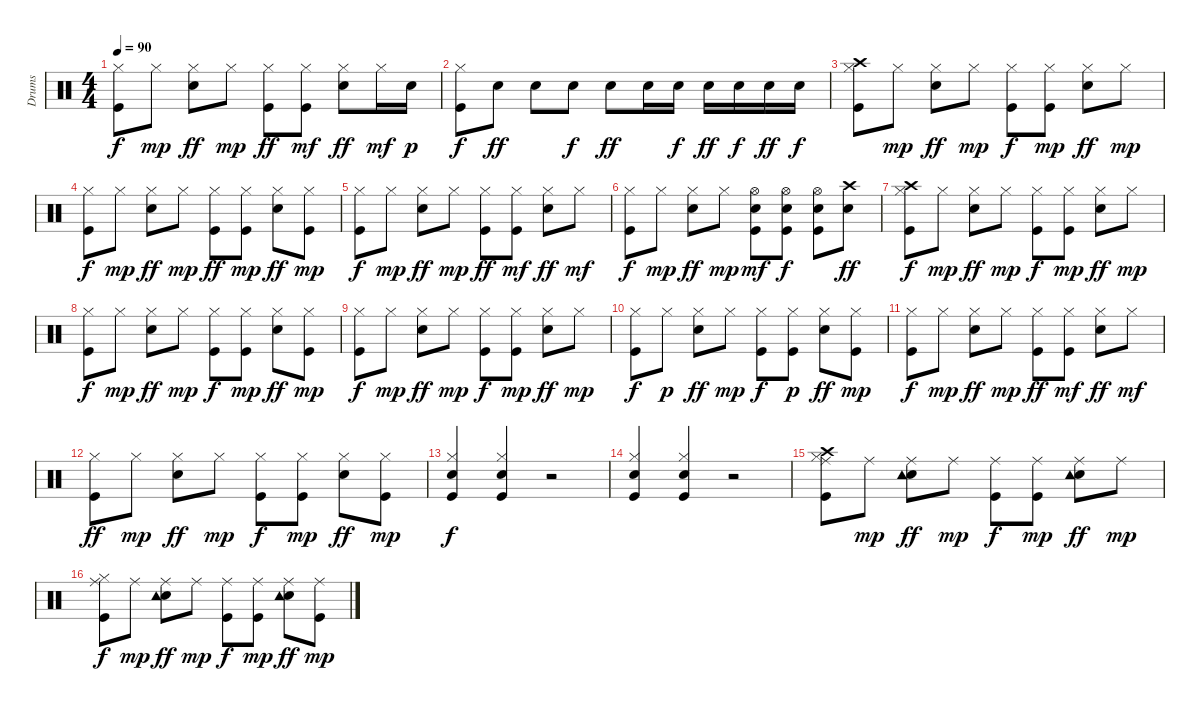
\track ("Drums   " "Drums   ") {instrument percussion}
\staff {score}
\articulation defaults
\ts (4 4)
\tempo 90
\clef neutral
\ks c
("Kick (hit)" "Hi-Hat (closed)").8{dy f} "Hi-Hat (closed)".8{dy mp} ("Snare (hit) 2" "Hi-Hat (closed)").8{dy ff} "Hi-Hat (closed)".8{dy mp} ("Kick (hit)" "Hi-Hat (closed)").8{dy ff} ("Kick (hit)" "Hi-Hat (closed)").8{dy mf} ("Snare (hit) 2" "Hi-Hat (closed)").8{dy ff} "Hi-Hat (closed)".16{dy mf} "Snare (hit) 2".16{dy p} |
("Kick (hit)" "Hi-Hat (closed)").8{dy f} "Snare (hit) 2".8{dy ff} "Snare (hit) 2".8 "Snare (hit) 2".8{dy f} "Snare (hit) 2".8{dy ff} "Snare (hit) 2".16 "Snare (hit) 2".16{dy f} "Snare (hit) 2".16{dy ff} "Snare (hit) 2".16{dy f} "Snare (hit) 2".16{dy ff} "Snare (hit) 2".16{dy f} |
("Kick (hit)" "Hi-Hat (closed)" "Crash high (hit)").8 "Hi-Hat (closed)".8{dy mp} ("Snare (hit) 2" "Hi-Hat (closed)").8{dy ff} "Hi-Hat (closed)".8{dy mp} ("Kick (hit)" "Hi-Hat (closed)").8{dy f} ("Kick (hit)" "Hi-Hat (closed)").8{dy mp} ("Snare (hit) 2" "Hi-Hat (closed)").8{dy ff} "Hi-Hat (closed)".8{dy mp} |
("Kick (hit)" "Hi-Hat (closed)").8{dy f} "Hi-Hat (closed)".8{dy mp} ("Snare (hit) 2" "Hi-Hat (closed)").8{dy ff} "Hi-Hat (closed)".8{dy mp} ("Kick (hit)" "Hi-Hat (closed)").8{dy ff} ("Kick (hit)" "Hi-Hat (closed)").8{dy mp} ("Snare (hit) 2" "Hi-Hat (closed)").8{dy ff} ("Kick (hit)" "Hi-Hat (closed)").8{dy mp} |
("Kick (hit)" "Hi-Hat (closed)").8{dy f} "Hi-Hat (closed)".8{dy mp} ("Snare (hit) 2" "Hi-Hat (closed)").8{dy ff} "Hi-Hat (closed)".8{dy mp} ("Kick (hit)" "Hi-Hat (closed)").8{dy ff} ("Kick (hit)" "Hi-Hat (closed)").8{dy mf} ("Snare (hit) 2" "Hi-Hat (closed)").8{dy ff} "Hi-Hat (closed)".8{dy mf} |
("Kick (hit)" "Hi-Hat (closed)").8{dy f} "Hi-Hat (closed)".8{dy mp} ("Snare (hit) 2" "Hi-Hat (closed)").8{dy ff} "Hi-Hat (closed)".8{dy mp} ("Kick (hit)" "Snare (hit) 2" "Hi-Hat (open)").8{dy mf} ("Kick (hit)" "Snare (hit) 2" "Hi-Hat (open)").8{dy f} ("Kick (hit)" "Snare (hit) 2" "Hi-Hat (open)").8 ("Snare (hit) 2" "Crash high (hit)").8{dy ff} |
("Kick (hit)" "Hi-Hat (closed)" "Crash high (hit)").8{dy f} "Hi-Hat (closed)".8{dy mp} ("Snare (hit) 2" "Hi-Hat (closed)").8{dy ff} "Hi-Hat (closed)".8{dy mp} ("Kick (hit)" "Hi-Hat (closed)").8{dy f} ("Kick (hit)" "Hi-Hat (closed)").8{dy mp} ("Snare (hit) 2" "Hi-Hat (closed)").8{dy ff} "Hi-Hat (closed)".8{dy mp} |
("Kick (hit)" "Hi-Hat (closed)").8{dy f} "Hi-Hat (closed)".8{dy mp} ("Snare (hit) 2" "Hi-Hat (closed)").8{dy ff} "Hi-Hat (closed)".8{dy mp} ("Kick (hit)" "Hi-Hat (closed)").8{dy f} ("Kick (hit)" "Hi-Hat (closed)").8{dy mp} ("Snare (hit) 2" "Hi-Hat (closed)").8{dy ff} ("Kick (hit)" "Hi-Hat (closed)").8{dy mp} |
("Kick (hit)" "Hi-Hat (closed)").8{dy f} "Hi-Hat (closed)".8{dy mp} ("Snare (hit) 2" "Hi-Hat (closed)").8{dy ff} "Hi-Hat (closed)".8{dy mp} ("Kick (hit)" "Hi-Hat (closed)").8{dy f} ("Kick (hit)" "Hi-Hat (closed)").8{dy mp} ("Snare (hit) 2" "Hi-Hat (closed)").8{dy ff} "Hi-Hat (closed)".8{dy mp} |
("Kick (hit)" "Hi-Hat (closed)").8{dy f} "Hi-Hat (closed)".8{dy p} ("Snare (hit) 2" "Hi-Hat (closed)").8{dy ff} "Hi-Hat (closed)".8{dy mp} ("Kick (hit)" "Hi-Hat (closed)").8{dy f} ("Kick (hit)" "Hi-Hat (closed)").8{dy p} ("Snare (hit) 2" "Hi-Hat (closed)").8{dy ff} ("Kick (hit)" "Hi-Hat (closed)").8{dy mp} |
("Kick (hit)" "Hi-Hat (closed)").8{dy f} "Hi-Hat (closed)".8{dy mp} ("Snare (hit) 2" "Hi-Hat (closed)").8{dy ff} "Hi-Hat (closed)".8{dy mp} ("Kick (hit)" "Hi-Hat (closed)").8{dy ff} ("Kick (hit)" "Hi-Hat (closed)").8{dy mf} ("Snare (hit) 2" "Hi-Hat (closed)").8{dy ff} "Hi-Hat (closed)".8{dy mf} |
("Kick (hit)" "Hi-Hat (closed)").8{dy ff} "Hi-Hat (closed)".8{dy mp} ("Snare (hit) 2" "Hi-Hat (closed)").8{dy ff} "Hi-Hat (closed)".8{dy mp} ("Kick (hit)" "Hi-Hat (closed)").8{dy f} ("Kick (hit)" "Hi-Hat (closed)").8{dy mp} ("Snare (hit) 2" "Hi-Hat (closed)").8{dy ff} ("Kick (hit)" "Hi-Hat (closed)").8{dy mp} |
("Kick (hit)" "Snare (hit) 2" "Hi-Hat (closed)").4{dy f} ("Kick (hit)" "Snare (hit) 2" "Hi-Hat (closed)").4 r.2 |
("Kick (hit)" "Snare (hit) 2" "Hi-Hat (closed)").4 ("Kick (hit)" "Snare (hit) 2" "Hi-Hat (closed)").4 r.2 |
("Kick (hit)" "Hi-Hat (closed)" "Crash high (hit)" "Ride (middle)").8 "Ride (middle)".8{dy mp} ("Snare (hit) 2" "Tambourine (hit)" "Ride (middle)").8{dy ff} "Ride (middle)".8{dy mp} ("Kick (hit)" "Ride (middle)").8{dy f} ("Kick (hit)" "Ride (middle)").8{dy mp} ("Snare (hit) 2" "Tambourine (hit)" "Ride (middle)").8{dy ff} "Ride (middle)".8{dy mp} |
("Kick (hit)" "Hi-Hat (closed)" "Ride (middle)").8{dy f} "Ride (middle)".8{dy mp} ("Snare (hit) 2" "Tambourine (hit)" "Ride (middle)").8{dy ff} "Ride (middle)".8{dy mp} ("Kick (hit)" "Ride (middle)").8{dy f} ("Kick (hit)" "Ride (middle)").8{dy mp} ("Snare (hit) 2" "Tambourine (hit)" "Ride (middle)").8{dy ff} ("Kick (hit)" "Ride (middle)").8{dy mp}
